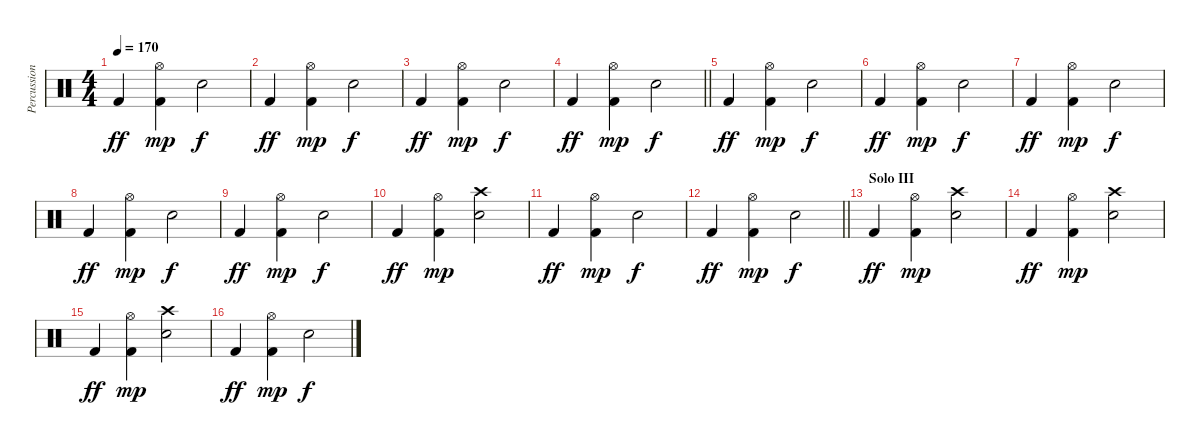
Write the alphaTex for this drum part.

\track ("Percussion" "Percussion") {instrument percussion}
\staff {score}
\articulation defaults
\ts (4 4)
\tempo 170
\clef neutral
\ks c "Kick (hit) 2".4{dy ff}
("Hi-Hat (open)" "Kick (hit) 2").4{dy mp} "Electric Snare (hit)".2{dy f} |
"Kick (hit) 2".4{dy ff} ("Hi-Hat (open)" "Kick (hit) 2").4{dy mp} "Electric Snare (hit)".2{dy f} |
"Kick (hit) 2".4{dy ff} ("Hi-Hat (open)" "Kick (hit) 2").4{dy mp} "Electric Snare (hit)".2{dy f} |
\barLineRight lightlight "Kick (hit) 2".4{dy ff}
("Hi-Hat (open)" "Kick (hit) 2").4{dy mp} "Electric Snare (hit)".2{dy f} |
"Kick (hit) 2".4{dy ff} ("Hi-Hat (open)" "Kick (hit) 2").4{dy mp} "Electric Snare (hit)".2{dy f} |
"Kick (hit) 2".4{dy ff} ("Hi-Hat (open)" "Kick (hit) 2").4{dy mp} "Electric Snare (hit)".2{dy f} |
"Kick (hit) 2".4{dy ff} ("Hi-Hat (open)" "Kick (hit) 2").4{dy mp} "Electric Snare (hit)".2{dy f} |
"Kick (hit) 2".4{dy ff} ("Hi-Hat (open)" "Kick (hit) 2").4{dy mp} "Electric Snare (hit)".2{dy f} |
"Kick (hit) 2".4{dy ff} ("Hi-Hat (open)" "Kick (hit) 2").4{dy mp} "Electric Snare (hit)".2{dy f} |
"Kick (hit) 2".4{dy ff} ("Hi-Hat (open)" "Kick (hit) 2").4{dy mp} ("Crash high (hit)" "Electric Snare (hit)").2 |
"Kick (hit) 2".4{dy ff} ("Hi-Hat (open)" "Kick (hit) 2").4{dy mp} "Electric Snare (hit)".2{dy f} |
\barLineRight lightlight "Kick (hit) 2".4{dy ff}
("Hi-Hat (open)" "Kick (hit) 2").4{dy mp} "Electric Snare (hit)".2{dy f} |
\section ("" "Solo III")
"Kick (hit) 2".4{dy ff} ("Hi-Hat (open)" "Kick (hit) 2").4{dy mp} ("Crash high (hit)" "Electric Snare (hit)").2 |
"Kick (hit) 2".4{dy ff} ("Hi-Hat (open)" "Kick (hit) 2").4{dy mp} ("Crash high (hit)" "Electric Snare (hit)").2 |
"Kick (hit) 2".4{dy ff} ("Hi-Hat (open)" "Kick (hit) 2").4{dy mp} ("Crash high (hit)" "Electric Snare (hit)").2 |
"Kick (hit) 2".4{dy ff} ("Hi-Hat (open)" "Kick (hit) 2").4{dy mp} "Electric Snare (hit)".2{dy f}
